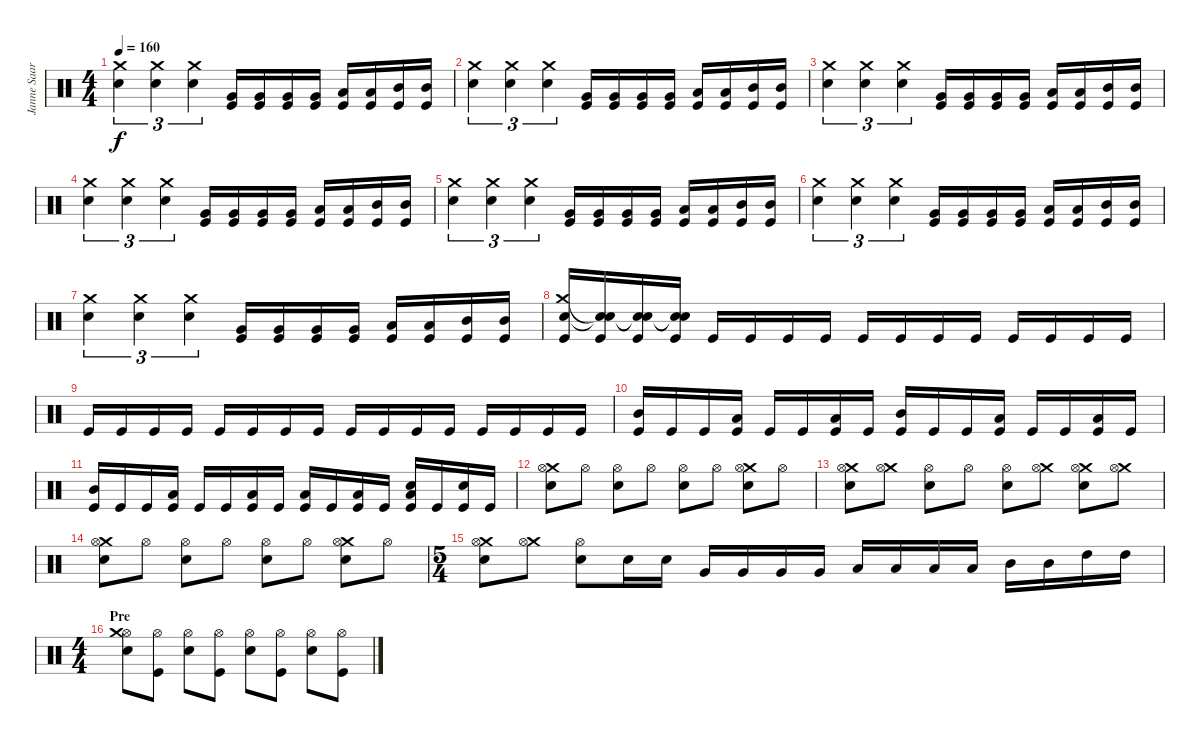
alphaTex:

\track ("Janne Saarenpaa" "Janne Saar") {instrument percussion}
\staff {score}
\articulation defaults
\ts (4 4)
\tempo 160
\clef neutral
\ks c
("Snare (hit) 2" "Crash medium (hit)").4{tu (3 2) dy f} ("Snare (hit) 2" "Crash medium (hit)").4{tu (3 2)} ("Snare (hit) 2" "Crash medium (hit)").4{tu (3 2)} ("Kick (hit)" "Very Low Tom (hit)").16 ("Kick (hit)" "Very Low Tom (hit)").16 ("Kick (hit)" "Very Low Tom (hit)").16 ("Kick (hit)" "Very Low Tom (hit)").16 ("Kick (hit)" "Low Tom (hit)").16 ("Kick (hit)" "Low Tom (hit)").16 ("Kick (hit)" "Mid Tom (hit)").16 ("Kick (hit)" "Mid Tom (hit)").16 |
("Snare (hit) 2" "Crash medium (hit)").4{tu (3 2)} ("Snare (hit) 2" "Crash medium (hit)").4{tu (3 2)} ("Snare (hit) 2" "Crash medium (hit)").4{tu (3 2)} ("Kick (hit)" "Very Low Tom (hit)").16 ("Kick (hit)" "Very Low Tom (hit)").16 ("Kick (hit)" "Very Low Tom (hit)").16 ("Kick (hit)" "Very Low Tom (hit)").16 ("Kick (hit)" "Low Tom (hit)").16 ("Kick (hit)" "Low Tom (hit)").16 ("Kick (hit)" "Mid Tom (hit)").16 ("Kick (hit)" "Mid Tom (hit)").16 |
("Snare (hit) 2" "Crash medium (hit)").4{tu (3 2)} ("Snare (hit) 2" "Crash medium (hit)").4{tu (3 2)} ("Snare (hit) 2" "Crash medium (hit)").4{tu (3 2)} ("Kick (hit)" "Very Low Tom (hit)").16 ("Kick (hit)" "Very Low Tom (hit)").16 ("Kick (hit)" "Very Low Tom (hit)").16 ("Kick (hit)" "Very Low Tom (hit)").16 ("Kick (hit)" "Low Tom (hit)").16 ("Kick (hit)" "Low Tom (hit)").16 ("Kick (hit)" "Mid Tom (hit)").16 ("Kick (hit)" "Mid Tom (hit)").16 |
("Snare (hit) 2" "Crash medium (hit)").4{tu (3 2)} ("Snare (hit) 2" "Crash medium (hit)").4{tu (3 2)} ("Snare (hit) 2" "Crash medium (hit)").4{tu (3 2)} ("Kick (hit)" "Very Low Tom (hit)").16 ("Kick (hit)" "Very Low Tom (hit)").16 ("Kick (hit)" "Very Low Tom (hit)").16 ("Kick (hit)" "Very Low Tom (hit)").16 ("Kick (hit)" "Low Tom (hit)").16 ("Kick (hit)" "Low Tom (hit)").16 ("Kick (hit)" "Mid Tom (hit)").16 ("Kick (hit)" "Mid Tom (hit)").16 |
("Snare (hit) 2" "Crash medium (hit)").4{tu (3 2)} ("Snare (hit) 2" "Crash medium (hit)").4{tu (3 2)} ("Snare (hit) 2" "Crash medium (hit)").4{tu (3 2)} ("Kick (hit)" "Very Low Tom (hit)").16 ("Kick (hit)" "Very Low Tom (hit)").16 ("Kick (hit)" "Very Low Tom (hit)").16 ("Kick (hit)" "Very Low Tom (hit)").16 ("Kick (hit)" "Low Tom (hit)").16 ("Kick (hit)" "Low Tom (hit)").16 ("Kick (hit)" "Mid Tom (hit)").16 ("Kick (hit)" "Mid Tom (hit)").16 |
("Snare (hit) 2" "Crash medium (hit)").4{tu (3 2)} ("Snare (hit) 2" "Crash medium (hit)").4{tu (3 2)} ("Snare (hit) 2" "Crash medium (hit)").4{tu (3 2)} ("Kick (hit)" "Very Low Tom (hit)").16 ("Kick (hit)" "Very Low Tom (hit)").16 ("Kick (hit)" "Very Low Tom (hit)").16 ("Kick (hit)" "Very Low Tom (hit)").16 ("Kick (hit)" "Low Tom (hit)").16 ("Kick (hit)" "Low Tom (hit)").16 ("Kick (hit)" "Mid Tom (hit)").16 ("Kick (hit)" "Mid Tom (hit)").16 |
("Snare (hit) 2" "Crash medium (hit)").4{tu (3 2)} ("Snare (hit) 2" "Crash medium (hit)").4{tu (3 2)} ("Snare (hit) 2" "Crash medium (hit)").4{tu (3 2)} ("Kick (hit)" "Very Low Tom (hit)").16 ("Kick (hit)" "Very Low Tom (hit)").16 ("Kick (hit)" "Very Low Tom (hit)").16 ("Kick (hit)" "Very Low Tom (hit)").16 ("Kick (hit)" "Low Tom (hit)").16 ("Kick (hit)" "Low Tom (hit)").16 ("Kick (hit)" "Mid Tom (hit)").16 ("Kick (hit)" "Mid Tom (hit)").16 |
("Kick (hit)" "Snare (hit) 2" "Crash medium (hit)").16 ("Kick (hit)" "Snare (hit)"{t} "Snare (hit)"{t}).16 ("Kick (hit)" "Snare (hit)"{t} "Snare (hit)"{t}).16 ("Kick (hit)" "Snare (hit)"{t} "Snare (hit)"{t}).16 "Kick (hit)".16 "Kick (hit)".16 "Kick (hit)".16 "Kick (hit)".16 "Kick (hit)".16 "Kick (hit)".16 "Kick (hit)".16 "Kick (hit)".16 "Kick (hit)".16 "Kick (hit)".16 "Kick (hit)".16 "Kick (hit)".16 |
"Kick (hit)".16 "Kick (hit)".16 "Kick (hit)".16 "Kick (hit)".16 "Kick (hit)".16 "Kick (hit)".16 "Kick (hit)".16 "Kick (hit)".16 "Kick (hit)".16 "Kick (hit)".16 "Kick (hit)".16 "Kick (hit)".16 "Kick (hit)".16 "Kick (hit)".16 "Kick (hit)".16 "Kick (hit)".16 |
("Kick (hit)" "Mid Tom (hit)").16 "Kick (hit)".16 "Kick (hit)".16 ("Kick (hit)" "Low Tom (hit)").16 "Kick (hit)".16 "Kick (hit)".16 ("Kick (hit)" "Low Floor Tom (hit)").16 "Kick (hit)".16 ("Kick (hit)" "Mid Tom (hit)").16 "Kick (hit)".16 "Kick (hit)".16 ("Kick (hit)" "Low Tom (hit)").16 "Kick (hit)".16 "Kick (hit)".16 ("Kick (hit)" "Low Floor Tom (hit)").16 "Kick (hit)".16 |
("Kick (hit)" "Mid Tom (hit)").16 "Kick (hit)".16 "Kick (hit)".16 ("Kick (hit)" "Low Tom (hit)").16 "Kick (hit)".16 "Kick (hit)".16 ("Kick (hit)" "Low Floor Tom (hit)").16 "Kick (hit)".16 ("Kick (hit)" "Low Floor Tom (hit)").16 "Kick (hit)".16 ("Kick (hit)" "Low Tom (hit)").16 "Kick (hit)".16 ("Kick (hit)" "Low Tom (hit)" "Snare (hit) 2").16 "Kick (hit)".16 ("Kick (hit)" "Snare (hit) 2").16 "Kick (hit)".16 |
("Snare (hit) 2" "Crash medium (hit)" "Hi-Hat (open)").8 "Hi-Hat (open)".8 ("Snare (hit) 2" "Hi-Hat (open)").8 "Hi-Hat (open)".8 ("Snare (hit) 2" "Hi-Hat (open)").8 "Hi-Hat (open)".8 ("Snare (hit) 2" "Crash medium (hit)" "Hi-Hat (open)").8 "Hi-Hat (open)".8 |
("Snare (hit) 2" "Crash medium (hit)" "Hi-Hat (open)").8 ("Crash medium (hit)" "Hi-Hat (open)").8 ("Snare (hit) 2" "Hi-Hat (open)").8 "Hi-Hat (open)".8 ("Snare (hit) 2" "Hi-Hat (open)").8 ("Crash medium (hit)" "Hi-Hat (open)").8 ("Snare (hit) 2" "Crash medium (hit)" "Hi-Hat (open)").8 ("Crash medium (hit)" "Hi-Hat (open)").8 |
("Snare (hit) 2" "Crash medium (hit)" "Hi-Hat (open)").8 "Hi-Hat (open)".8 ("Snare (hit) 2" "Hi-Hat (open)").8 "Hi-Hat (open)".8 ("Snare (hit) 2" "Hi-Hat (open)").8 "Hi-Hat (open)".8 ("Snare (hit) 2" "Crash medium (hit)" "Hi-Hat (open)").8 "Hi-Hat (open)".8 |
\ts (5 4)
("Snare (hit) 2" "Crash medium (hit)" "Hi-Hat (open)").8 ("Crash medium (hit)" "Hi-Hat (open)").8 ("Snare (hit) 2" "Hi-Hat (open)").8 "Snare (hit) 2".16 "Snare (hit) 2".16 "Very Low Tom (hit)".16 "Very Low Tom (hit)".16 "Very Low Tom (hit)".16 "Very Low Tom (hit)".16 "Low Tom (hit)".16 "Low Tom (hit)".16 "Low Tom (hit)".16 "Low Tom (hit)".16 "Mid Tom (hit)".16 "Mid Tom (hit)".16 "High Tom (hit)".16 "High Tom (hit)".16 |
\ts (4 4)
\section ("" "Pre")
("Hi-Hat (open)" "Snare (hit) 2" "Crash medium (hit)").8 ("Hi-Hat (open)" "Kick (hit)").8 ("Hi-Hat (open)" "Snare (hit) 2").8 ("Hi-Hat (open)" "Kick (hit)").8 ("Hi-Hat (open)" "Snare (hit) 2").8 ("Hi-Hat (open)" "Kick (hit)").8 ("Hi-Hat (open)" "Snare (hit) 2").8 ("Hi-Hat (open)" "Kick (hit)").8
